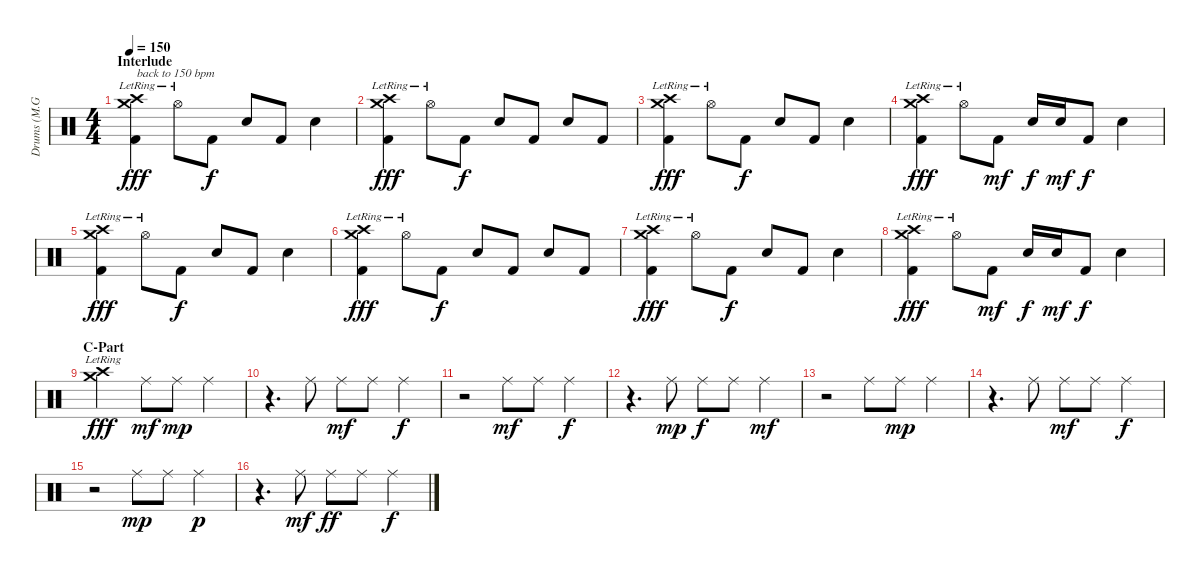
\track ("Drums (M.Großkopf)" "Drums (M.G") {instrument percussion}
\staff {score}
\articulation defaults
\ts (4 4)
\section ("" "Interlude")
\tempo 150
\clef neutral
\ks c
("Crash high (hit)"{lr} "Crash medium (hit)"{lr} "Kick (hit) 2").4{txt "back to 150 bpm" dy fff} "Hi-Hat (open)"{lr}.8 "Kick (hit) 2".8{dy f} "Electric Snare (hit)".8 "Kick (hit) 2".8 "Electric Snare (hit)".4 |
("Crash high (hit)"{lr} "Crash medium (hit)"{lr} "Kick (hit) 2").4{dy fff} "Hi-Hat (open)"{lr}.8 "Kick (hit) 2".8{dy f} "Electric Snare (hit)".8 "Kick (hit) 2".8 "Electric Snare (hit)".8 "Kick (hit) 2".8 |
("Crash high (hit)"{lr} "Crash medium (hit)"{lr} "Kick (hit) 2").4{dy fff} "Hi-Hat (open)"{lr}.8 "Kick (hit) 2".8{dy f} "Electric Snare (hit)".8 "Kick (hit) 2".8 "Electric Snare (hit)".4 |
("Crash high (hit)"{lr} "Crash medium (hit)"{lr} "Kick (hit) 2").4{dy fff} "Hi-Hat (open)"{lr}.8 "Kick (hit) 2".8{dy mf} "Electric Snare (hit)".16{dy f} "Electric Snare (hit)".16{dy mf} "Kick (hit) 2".8{dy f} "Electric Snare (hit)".4 |
("Crash high (hit)"{lr} "Crash medium (hit)"{lr} "Kick (hit) 2").4{dy fff} "Hi-Hat (open)"{lr}.8 "Kick (hit) 2".8{dy f} "Electric Snare (hit)".8 "Kick (hit) 2".8 "Electric Snare (hit)".4 |
("Crash high (hit)"{lr} "Crash medium (hit)"{lr} "Kick (hit) 2").4{dy fff} "Hi-Hat (open)"{lr}.8 "Kick (hit) 2".8{dy f} "Electric Snare (hit)".8 "Kick (hit) 2".8 "Electric Snare (hit)".8 "Kick (hit) 2".8 |
("Crash high (hit)"{lr} "Crash medium (hit)"{lr} "Kick (hit) 2").4{dy fff} "Hi-Hat (open)"{lr}.8 "Kick (hit) 2".8{dy f} "Electric Snare (hit)".8 "Kick (hit) 2".8 "Electric Snare (hit)".4 |
("Crash high (hit)"{lr} "Crash medium (hit)"{lr} "Kick (hit) 2").4{dy fff} "Hi-Hat (open)"{lr}.8 "Kick (hit) 2".8{dy mf} "Electric Snare (hit)".16{dy f} "Electric Snare (hit)".16{dy mf} "Kick (hit) 2".8{dy f} "Electric Snare (hit)".4 |
\section ("" "C-Part")
("Crash high (hit)"{lr} "Crash medium (hit)"{lr}).2{dy fff} "Ride (middle)".8{dy mf} "Ride (middle)".8{dy mp} "Ride (middle)".4 |
r.4{d} "Ride (middle)".8 "Ride (middle)".8{dy mf} "Ride (middle)".8 "Ride (middle)".4{dy f} |
r.2 "Ride (middle)".8{dy mf} "Ride (middle)".8 "Ride (middle)".4{dy f} |
r.4{d} "Ride (middle)".8{dy mp} "Ride (middle)".8{dy f} "Ride (middle)".8 "Ride (middle)".4{dy mf} |
r.2 "Ride (middle)".8 "Ride (middle)".8{dy mp} "Ride (middle)".4 |
r.4{d} "Ride (middle)".8 "Ride (middle)".8{dy mf} "Ride (middle)".8 "Ride (middle)".4{dy f} |
r.2 "Ride (middle)".8{dy mp} "Ride (middle)".8 "Ride (middle)".4{dy p} |
r.4{d} "Ride (middle)".8{dy mf} "Ride (middle)".8{dy ff} "Ride (middle)".8 "Ride (middle)".4{dy f}
